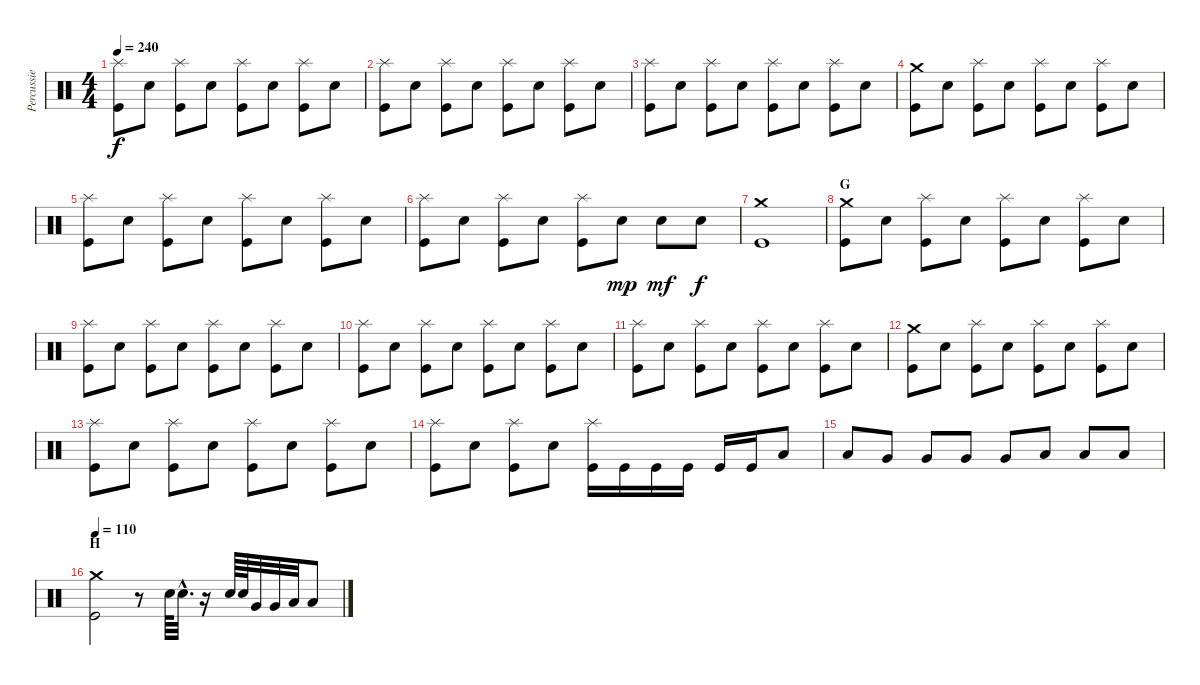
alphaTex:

\track ("Percussie" "Percussie") {instrument percussion}
\staff {score}
\articulation defaults
\ts (4 4)
\tempo 240
\clef neutral
\ks c
("Splash (hit)" "Kick (hit)").8{dy f} "Electric Snare (hit)".8 ("Splash (hit)" "Kick (hit)").8 "Electric Snare (hit)".8 ("Splash (hit)" "Kick (hit)").8 "Electric Snare (hit)".8 ("Splash (hit)" "Kick (hit)").8 "Electric Snare (hit)".8 |
("Splash (hit)" "Kick (hit)").8 "Electric Snare (hit)".8 ("Splash (hit)" "Kick (hit)").8 "Electric Snare (hit)".8 ("Splash (hit)" "Kick (hit)").8 "Electric Snare (hit)".8 ("Splash (hit)" "Kick (hit)").8 "Electric Snare (hit)".8 |
("Splash (hit)" "Kick (hit)").8 "Electric Snare (hit)".8 ("Splash (hit)" "Kick (hit)").8 "Electric Snare (hit)".8 ("Splash (hit)" "Kick (hit)").8 "Electric Snare (hit)".8 ("Splash (hit)" "Kick (hit)").8 "Electric Snare (hit)".8 |
("Crash medium (hit)" "Kick (hit)").8 "Electric Snare (hit)".8 ("Splash (hit)" "Kick (hit)").8 "Electric Snare (hit)".8 ("Splash (hit)" "Kick (hit)").8 "Electric Snare (hit)".8 ("Splash (hit)" "Kick (hit)").8 "Electric Snare (hit)".8 |
("Splash (hit)" "Kick (hit)").8 "Electric Snare (hit)".8 ("Splash (hit)" "Kick (hit)").8 "Electric Snare (hit)".8 ("Splash (hit)" "Kick (hit)").8 "Electric Snare (hit)".8 ("Splash (hit)" "Kick (hit)").8 "Electric Snare (hit)".8 |
("Splash (hit)" "Kick (hit)").8 "Electric Snare (hit)".8 ("Splash (hit)" "Kick (hit)").8 "Electric Snare (hit)".8 ("Splash (hit)" "Kick (hit)").8 "Electric Snare (hit)".8{dy mp} "Electric Snare (hit)".8{dy mf} "Electric Snare (hit)".8{dy f} |
("Crash medium (hit)" "Kick (hit)").1 |
\section ("" "G")
("Crash medium (hit)" "Kick (hit)").8 "Electric Snare (hit)".8 ("Splash (hit)" "Kick (hit)").8 "Electric Snare (hit)".8 ("Splash (hit)" "Kick (hit)").8 "Electric Snare (hit)".8 ("Splash (hit)" "Kick (hit)").8 "Electric Snare (hit)".8 |
("Splash (hit)" "Kick (hit)").8 "Electric Snare (hit)".8 ("Splash (hit)" "Kick (hit)").8 "Electric Snare (hit)".8 ("Splash (hit)" "Kick (hit)").8 "Electric Snare (hit)".8 ("Splash (hit)" "Kick (hit)").8 "Electric Snare (hit)".8 |
("Splash (hit)" "Kick (hit)").8 "Electric Snare (hit)".8 ("Splash (hit)" "Kick (hit)").8 "Electric Snare (hit)".8 ("Splash (hit)" "Kick (hit)").8 "Electric Snare (hit)".8 ("Splash (hit)" "Kick (hit)").8 "Electric Snare (hit)".8 |
("Splash (hit)" "Kick (hit)").8 "Electric Snare (hit)".8 ("Splash (hit)" "Kick (hit)").8 "Electric Snare (hit)".8 ("Splash (hit)" "Kick (hit)").8 "Electric Snare (hit)".8 ("Splash (hit)" "Kick (hit)").8 "Electric Snare (hit)".8 |
("Crash medium (hit)" "Kick (hit)").8 "Electric Snare (hit)".8 ("Splash (hit)" "Kick (hit)").8 "Electric Snare (hit)".8 ("Splash (hit)" "Kick (hit)").8 "Electric Snare (hit)".8 ("Splash (hit)" "Kick (hit)").8 "Electric Snare (hit)".8 |
("Splash (hit)" "Kick (hit)").8 "Electric Snare (hit)".8 ("Splash (hit)" "Kick (hit)").8 "Electric Snare (hit)".8 ("Splash (hit)" "Kick (hit)").8 "Electric Snare (hit)".8 ("Splash (hit)" "Kick (hit)").8 "Electric Snare (hit)".8 |
("Splash (hit)" "Kick (hit)").8 "Electric Snare (hit)".8 ("Splash (hit)" "Kick (hit)").8 "Electric Snare (hit)".8 ("Splash (hit)" "Kick (hit)").16 "Kick (hit)".16 "Kick (hit)".16 "Kick (hit)".16 "Kick (hit)".16 "Kick (hit)".16 "Low Tom (hit)".8 |
"Low Tom (hit)".8 "Very Low Tom (hit)".8 "Very Low Tom (hit)".8 "Very Low Tom (hit)".8 "Very Low Tom (hit)".8 "Low Floor Tom (hit)".8 "Low Floor Tom (hit)".8 "Low Floor Tom (hit)".8 |
\section ("" "H")
\tempo 110
("Crash medium (hit)" "Kick (hit)").2 r.8 "Electric Snare (hit)".64 "Electric Snare (hit)"{hac}.32{d} r.16 "Electric Snare (hit)".64 "Electric Snare (hit)".64 "Very Low Tom (hit)".32 "Very Low Tom (hit)".32 "Low Floor Tom (hit)".32 "Low Floor Tom (hit)".8
